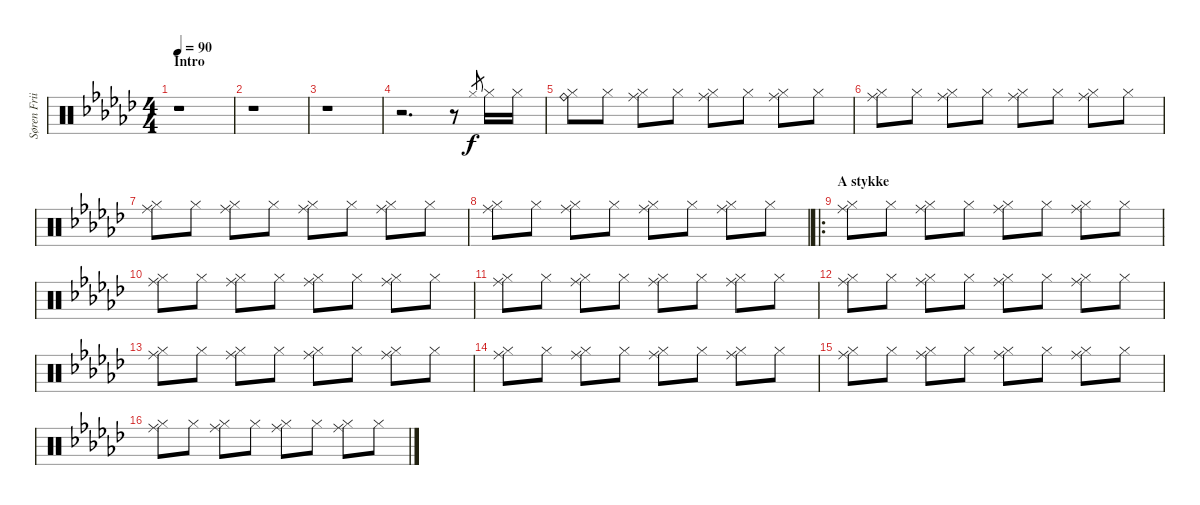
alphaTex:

\track ("Søren Friis (Drums)" "Søren Frii") {instrument percussion}
\staff {score}
\articulation defaults
\ts (4 4)
\section ("" "Intro")
\tempo 90
\clef neutral
\ks gb
r.1{dy f} |
r.1 |
r.1 |
r.2{d} r.8 "Hi-Hat (closed)".8{gr} "Hi-Hat (closed)".16 "Hi-Hat (closed)".16 |
("Hi-Hat (closed)" "Ride (bell)").8 "Hi-Hat (closed)".8 ("Hi-Hat (closed)" "Ride (middle)").8 "Hi-Hat (closed)".8 ("Hi-Hat (closed)" "Ride (middle)").8 "Hi-Hat (closed)".8 ("Hi-Hat (closed)" "Ride (middle)").8 "Hi-Hat (closed)".8 |
("Hi-Hat (closed)" "Ride (middle)").8 "Hi-Hat (closed)".8 ("Hi-Hat (closed)" "Ride (middle)").8 "Hi-Hat (closed)".8 ("Hi-Hat (closed)" "Ride (middle)").8 "Hi-Hat (closed)".8 ("Hi-Hat (closed)" "Ride (middle)").8 "Hi-Hat (closed)".8 |
("Hi-Hat (closed)" "Ride (middle)").8 "Hi-Hat (closed)".8 ("Hi-Hat (closed)" "Ride (middle)").8 "Hi-Hat (closed)".8 ("Hi-Hat (closed)" "Ride (middle)").8 "Hi-Hat (closed)".8 ("Hi-Hat (closed)" "Ride (middle)").8 "Hi-Hat (closed)".8 |
("Hi-Hat (closed)" "Ride (middle)").8 "Hi-Hat (closed)".8 ("Hi-Hat (closed)" "Ride (middle)").8 "Hi-Hat (closed)".8 ("Hi-Hat (closed)" "Ride (middle)").8 "Hi-Hat (closed)".8 ("Hi-Hat (closed)" "Ride (middle)").8 "Hi-Hat (closed)".8 |
\ro
\section ("" "A stykke")
("Hi-Hat (closed)" "Ride (middle)").8 "Hi-Hat (closed)".8 ("Hi-Hat (closed)" "Ride (middle)").8 "Hi-Hat (closed)".8 ("Hi-Hat (closed)" "Ride (middle)").8 "Hi-Hat (closed)".8 ("Hi-Hat (closed)" "Ride (middle)").8 "Hi-Hat (closed)".8 |
("Hi-Hat (closed)" "Ride (middle)").8 "Hi-Hat (closed)".8 ("Hi-Hat (closed)" "Ride (middle)").8 "Hi-Hat (closed)".8 ("Hi-Hat (closed)" "Ride (middle)").8 "Hi-Hat (closed)".8 ("Hi-Hat (closed)" "Ride (middle)").8 "Hi-Hat (closed)".8 |
("Hi-Hat (closed)" "Ride (middle)").8 "Hi-Hat (closed)".8 ("Hi-Hat (closed)" "Ride (middle)").8 "Hi-Hat (closed)".8 ("Hi-Hat (closed)" "Ride (middle)").8 "Hi-Hat (closed)".8 ("Hi-Hat (closed)" "Ride (middle)").8 "Hi-Hat (closed)".8 |
("Hi-Hat (closed)" "Ride (middle)").8 "Hi-Hat (closed)".8 ("Hi-Hat (closed)" "Ride (middle)").8 "Hi-Hat (closed)".8 ("Hi-Hat (closed)" "Ride (middle)").8 "Hi-Hat (closed)".8 ("Hi-Hat (closed)" "Ride (middle)").8 "Hi-Hat (closed)".8 |
("Hi-Hat (closed)" "Ride (middle)").8 "Hi-Hat (closed)".8 ("Hi-Hat (closed)" "Ride (middle)").8 "Hi-Hat (closed)".8 ("Hi-Hat (closed)" "Ride (middle)").8 "Hi-Hat (closed)".8 ("Hi-Hat (closed)" "Ride (middle)").8 "Hi-Hat (closed)".8 |
("Hi-Hat (closed)" "Ride (middle)").8 "Hi-Hat (closed)".8 ("Hi-Hat (closed)" "Ride (middle)").8 "Hi-Hat (closed)".8 ("Hi-Hat (closed)" "Ride (middle)").8 "Hi-Hat (closed)".8 ("Hi-Hat (closed)" "Ride (middle)").8 "Hi-Hat (closed)".8 |
("Hi-Hat (closed)" "Ride (middle)").8 "Hi-Hat (closed)".8 ("Hi-Hat (closed)" "Ride (middle)").8 "Hi-Hat (closed)".8 ("Hi-Hat (closed)" "Ride (middle)").8 "Hi-Hat (closed)".8 ("Hi-Hat (closed)" "Ride (middle)").8 "Hi-Hat (closed)".8 |
("Hi-Hat (closed)" "Ride (middle)").8 "Hi-Hat (closed)".8 ("Hi-Hat (closed)" "Ride (middle)").8 "Hi-Hat (closed)".8 ("Hi-Hat (closed)" "Ride (middle)").8 "Hi-Hat (closed)".8 ("Hi-Hat (closed)" "Ride (middle)").8 "Hi-Hat (closed)".8
